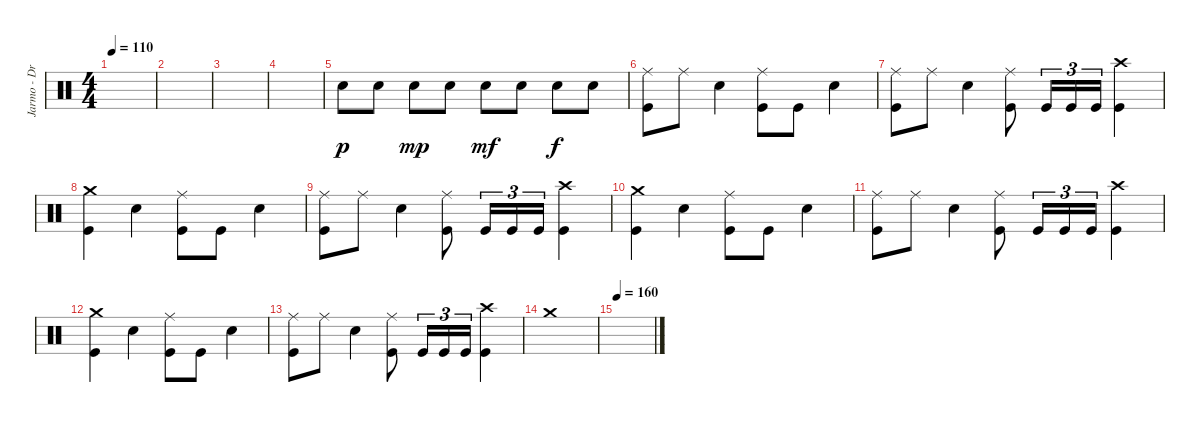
\track ("Jarmo - Drums" "Jarmo - Dr") {instrument percussion}
\staff {score}
\articulation defaults
\ts (4 4)
\tempo 110
\clef neutral
\ks c
|
|
|
|
"Electric Snare (hit)".8{dy p} "Electric Snare (hit)".8 "Electric Snare (hit)".8{dy mp} "Electric Snare (hit)".8 "Electric Snare (hit)".8{dy mf} "Electric Snare (hit)".8 "Electric Snare (hit)".8{dy f} "Electric Snare (hit)".8 |
("Kick (hit)" "Ride (middle)").8 "Ride (middle)".8 "Electric Snare (hit)".4 ("Kick (hit)" "Ride (middle)").8 "Kick (hit)".8 "Electric Snare (hit)".4 |
("Kick (hit)" "Ride (middle)").8 "Ride (middle)".8 "Electric Snare (hit)".4 ("Kick (hit)" "Ride (middle)").8 "Kick (hit)".16{tu (3 2)} "Kick (hit)".16{tu (3 2)} "Kick (hit)".16{tu (3 2)} ("Kick (hit)" "Crash high (hit)").4 |
("Kick (hit)" "Crash medium (hit)").4 "Electric Snare (hit)".4 ("Kick (hit)" "Ride (middle)").8 "Kick (hit)".8 "Electric Snare (hit)".4 |
("Kick (hit)" "Ride (middle)").8 "Ride (middle)".8 "Electric Snare (hit)".4 ("Kick (hit)" "Ride (middle)").8 "Kick (hit)".16{tu (3 2)} "Kick (hit)".16{tu (3 2)} "Kick (hit)".16{tu (3 2)} ("Kick (hit)" "Crash high (hit)").4 |
("Kick (hit)" "Crash medium (hit)").4 "Electric Snare (hit)".4 ("Kick (hit)" "Ride (middle)").8 "Kick (hit)".8 "Electric Snare (hit)".4 |
("Kick (hit)" "Ride (middle)").8 "Ride (middle)".8 "Electric Snare (hit)".4 ("Kick (hit)" "Ride (middle)").8 "Kick (hit)".16{tu (3 2)} "Kick (hit)".16{tu (3 2)} "Kick (hit)".16{tu (3 2)} ("Kick (hit)" "Crash high (hit)").4 |
("Kick (hit)" "Crash medium (hit)").4 "Electric Snare (hit)".4 ("Kick (hit)" "Ride (middle)").8 "Kick (hit)".8 "Electric Snare (hit)".4 |
("Kick (hit)" "Ride (middle)").8 "Ride (middle)".8 "Electric Snare (hit)".4 ("Kick (hit)" "Ride (middle)").8 "Kick (hit)".16{tu (3 2)} "Kick (hit)".16{tu (3 2)} "Kick (hit)".16{tu (3 2)} ("Kick (hit)" "Crash high (hit)").4 |
"Crash medium (hit)".1 |
\tempo 160
